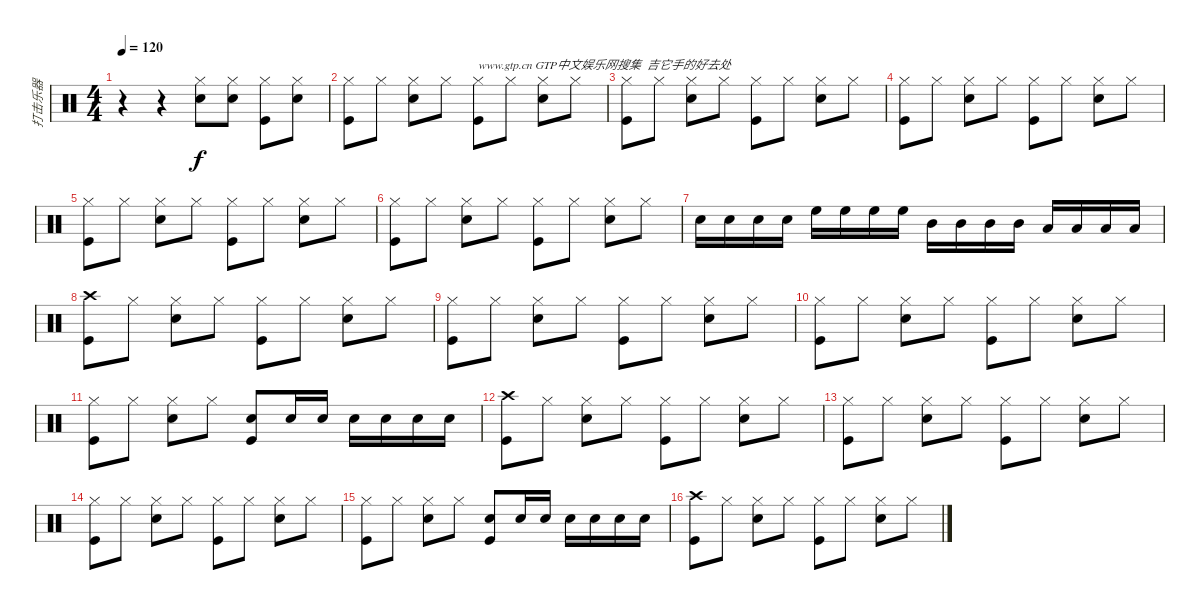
\track ("打击乐器" "打击乐器") {instrument percussion}
\staff {score}
\articulation defaults
\ts (4 4)
\tempo 120
\clef neutral
\ks c
r.4{dy f} r.4 ("Hi-Hat (closed)" "Electric Snare (hit)").8 ("Hi-Hat (closed)" "Electric Snare (hit)").8 ("Hi-Hat (closed)" "Kick (hit)").8 ("Hi-Hat (closed)" "Electric Snare (hit)").8 |
("Hi-Hat (closed)" "Kick (hit)").8 "Hi-Hat (closed)".8 ("Hi-Hat (closed)" "Electric Snare (hit)").8 "Hi-Hat (closed)".8 ("Hi-Hat (closed)" "Kick (hit)").8{txt "www.gtp.cn GTP中文娱乐网搜集  吉它手的好去处"} "Hi-Hat (closed)".8 ("Hi-Hat (closed)" "Electric Snare (hit)").8 "Hi-Hat (closed)".8 |
("Hi-Hat (closed)" "Kick (hit)").8 "Hi-Hat (closed)".8 ("Hi-Hat (closed)" "Electric Snare (hit)").8 "Hi-Hat (closed)".8 ("Hi-Hat (closed)" "Kick (hit)").8 "Hi-Hat (closed)".8 ("Hi-Hat (closed)" "Electric Snare (hit)").8 "Hi-Hat (closed)".8 |
("Hi-Hat (closed)" "Kick (hit)").8 "Hi-Hat (closed)".8 ("Hi-Hat (closed)" "Electric Snare (hit)").8 "Hi-Hat (closed)".8 ("Hi-Hat (closed)" "Kick (hit)").8 "Hi-Hat (closed)".8 ("Hi-Hat (closed)" "Electric Snare (hit)").8 "Hi-Hat (closed)".8 |
("Hi-Hat (closed)" "Kick (hit)").8 "Hi-Hat (closed)".8 ("Hi-Hat (closed)" "Electric Snare (hit)").8 "Hi-Hat (closed)".8 ("Hi-Hat (closed)" "Kick (hit)").8 "Hi-Hat (closed)".8 ("Hi-Hat (closed)" "Electric Snare (hit)").8 "Hi-Hat (closed)".8 |
("Hi-Hat (closed)" "Kick (hit)").8 "Hi-Hat (closed)".8 ("Hi-Hat (closed)" "Electric Snare (hit)").8 "Hi-Hat (closed)".8 ("Hi-Hat (closed)" "Kick (hit)").8 "Hi-Hat (closed)".8 ("Hi-Hat (closed)" "Electric Snare (hit)").8 "Hi-Hat (closed)".8 |
"Electric Snare (hit)".16 "Electric Snare (hit)".16 "Electric Snare (hit)".16 "Electric Snare (hit)".16 "High Floor Tom (hit)".16 "High Floor Tom (hit)".16 "High Floor Tom (hit)".16 "High Floor Tom (hit)".16 "Mid Tom (hit)".16 "Mid Tom (hit)".16 "Mid Tom (hit)".16 "Mid Tom (hit)".16 "Low Floor Tom (hit)".16 "Low Floor Tom (hit)".16 "Low Floor Tom (hit)".16 "Low Floor Tom (hit)".16 |
("Crash high (hit)" "Kick (hit)").8 "Hi-Hat (closed)".8 ("Hi-Hat (closed)" "Electric Snare (hit)").8 "Hi-Hat (closed)".8 ("Hi-Hat (closed)" "Kick (hit)").8 "Hi-Hat (closed)".8 ("Hi-Hat (closed)" "Electric Snare (hit)").8 "Hi-Hat (closed)".8 |
("Hi-Hat (closed)" "Kick (hit)").8 "Hi-Hat (closed)".8 ("Hi-Hat (closed)" "Electric Snare (hit)").8 "Hi-Hat (closed)".8 ("Hi-Hat (closed)" "Kick (hit)").8 "Hi-Hat (closed)".8 ("Hi-Hat (closed)" "Electric Snare (hit)").8 "Hi-Hat (closed)".8 |
("Hi-Hat (closed)" "Kick (hit)").8 "Hi-Hat (closed)".8 ("Hi-Hat (closed)" "Electric Snare (hit)").8 "Hi-Hat (closed)".8 ("Hi-Hat (closed)" "Kick (hit)").8 "Hi-Hat (closed)".8 ("Hi-Hat (closed)" "Electric Snare (hit)").8 "Hi-Hat (closed)".8 |
("Hi-Hat (closed)" "Kick (hit)").8 "Hi-Hat (closed)".8 ("Hi-Hat (closed)" "Electric Snare (hit)").8 "Hi-Hat (closed)".8 ("Electric Snare (hit)" "Kick (hit)").8 "Electric Snare (hit)".16 "Electric Snare (hit)".16 "Electric Snare (hit)".16 "Electric Snare (hit)".16 "Electric Snare (hit)".16 "Electric Snare (hit)".16 |
("Crash high (hit)" "Kick (hit)").8 "Hi-Hat (closed)".8 ("Hi-Hat (closed)" "Electric Snare (hit)").8 "Hi-Hat (closed)".8 ("Hi-Hat (closed)" "Kick (hit)").8 "Hi-Hat (closed)".8 ("Hi-Hat (closed)" "Electric Snare (hit)").8 "Hi-Hat (closed)".8 |
("Hi-Hat (closed)" "Kick (hit)").8 "Hi-Hat (closed)".8 ("Hi-Hat (closed)" "Electric Snare (hit)").8 "Hi-Hat (closed)".8 ("Hi-Hat (closed)" "Kick (hit)").8 "Hi-Hat (closed)".8 ("Hi-Hat (closed)" "Electric Snare (hit)").8 "Hi-Hat (closed)".8 |
("Hi-Hat (closed)" "Kick (hit)").8 "Hi-Hat (closed)".8 ("Hi-Hat (closed)" "Electric Snare (hit)").8 "Hi-Hat (closed)".8 ("Hi-Hat (closed)" "Kick (hit)").8 "Hi-Hat (closed)".8 ("Hi-Hat (closed)" "Electric Snare (hit)").8 "Hi-Hat (closed)".8 |
("Hi-Hat (closed)" "Kick (hit)").8 "Hi-Hat (closed)".8 ("Hi-Hat (closed)" "Electric Snare (hit)").8 "Hi-Hat (closed)".8 ("Electric Snare (hit)" "Kick (hit)").8 "Electric Snare (hit)".16 "Electric Snare (hit)".16 "Electric Snare (hit)".16 "Electric Snare (hit)".16 "Electric Snare (hit)".16 "Electric Snare (hit)".16 |
("Crash high (hit)" "Kick (hit)").8 "Hi-Hat (closed)".8 ("Hi-Hat (closed)" "Electric Snare (hit)").8 "Hi-Hat (closed)".8 ("Hi-Hat (closed)" "Kick (hit)").8 "Hi-Hat (closed)".8 ("Hi-Hat (closed)" "Electric Snare (hit)").8 "Hi-Hat (closed)".8
